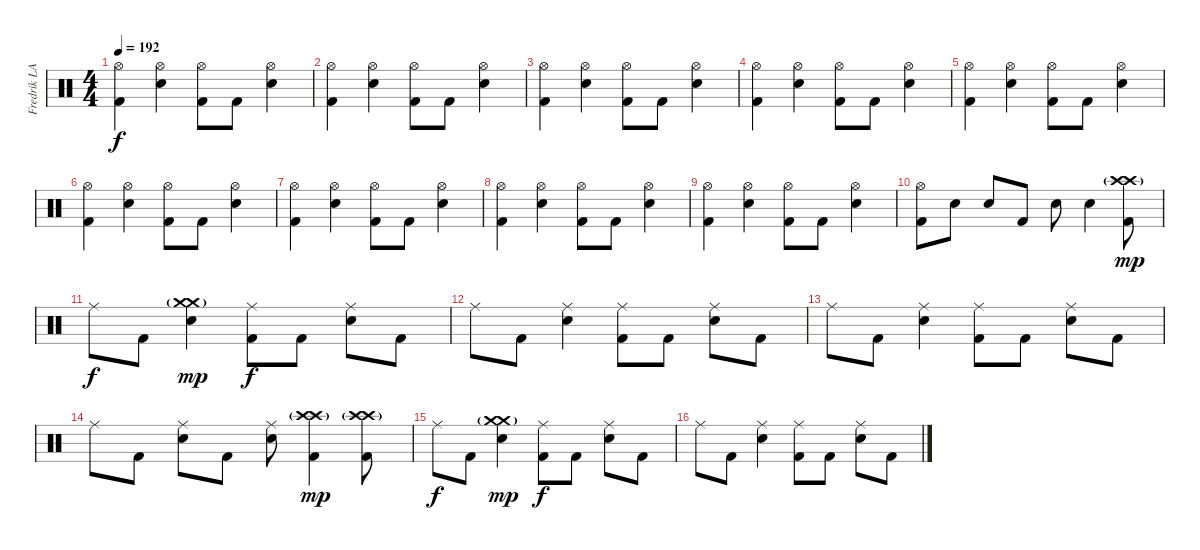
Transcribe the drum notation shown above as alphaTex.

\track ("Fredrik LARZON" "Fredrik LA") {instrument percussion}
\staff {score}
\articulation defaults
\ts (4 4)
\tempo 192
\clef neutral
\ks c
("Hi-Hat (open)" "Kick (hit) 2").4{dy f} ("Hi-Hat (open)" "Electric Snare (hit)").4 ("Hi-Hat (open)" "Kick (hit) 2").8 "Kick (hit) 2".8 ("Hi-Hat (open)" "Electric Snare (hit)").4 |
("Hi-Hat (open)" "Kick (hit) 2").4 ("Hi-Hat (open)" "Electric Snare (hit)").4 ("Hi-Hat (open)" "Kick (hit) 2").8 "Kick (hit) 2".8 ("Hi-Hat (open)" "Electric Snare (hit)").4 |
("Hi-Hat (open)" "Kick (hit) 2").4 ("Hi-Hat (open)" "Electric Snare (hit)").4 ("Hi-Hat (open)" "Kick (hit) 2").8 "Kick (hit) 2".8 ("Hi-Hat (open)" "Electric Snare (hit)").4 |
("Hi-Hat (open)" "Kick (hit) 2").4 ("Hi-Hat (open)" "Electric Snare (hit)").4 ("Hi-Hat (open)" "Kick (hit) 2").8 "Kick (hit) 2".8 ("Hi-Hat (open)" "Electric Snare (hit)").4 |
("Hi-Hat (open)" "Kick (hit) 2").4 ("Hi-Hat (open)" "Electric Snare (hit)").4 ("Hi-Hat (open)" "Kick (hit) 2").8 "Kick (hit) 2".8 ("Hi-Hat (open)" "Electric Snare (hit)").4 |
("Hi-Hat (open)" "Kick (hit) 2").4 ("Hi-Hat (open)" "Electric Snare (hit)").4 ("Hi-Hat (open)" "Kick (hit) 2").8 "Kick (hit) 2".8 ("Hi-Hat (open)" "Electric Snare (hit)").4 |
("Hi-Hat (open)" "Kick (hit) 2").4 ("Hi-Hat (open)" "Electric Snare (hit)").4 ("Hi-Hat (open)" "Kick (hit) 2").8 "Kick (hit) 2".8 ("Hi-Hat (open)" "Electric Snare (hit)").4 |
("Hi-Hat (open)" "Kick (hit) 2").4 ("Hi-Hat (open)" "Electric Snare (hit)").4 ("Hi-Hat (open)" "Kick (hit) 2").8 "Kick (hit) 2".8 ("Hi-Hat (open)" "Electric Snare (hit)").4 |
("Hi-Hat (open)" "Kick (hit) 2").4 ("Hi-Hat (open)" "Electric Snare (hit)").4 ("Hi-Hat (open)" "Kick (hit) 2").8 "Kick (hit) 2".8 ("Hi-Hat (open)" "Electric Snare (hit)").4 |
("Hi-Hat (open)" "Kick (hit) 2").8 "Electric Snare (hit)".8 "Electric Snare (hit)".8 "Kick (hit) 2".8 "Electric Snare (hit)".8 "Electric Snare (hit)".4 ("Crash high (hit)" "Crash high (hit)"{g} "Kick (hit) 2").8{dy mp} |
"Ride (middle)".8{dy f} "Kick (hit) 2".8 ("Crash medium (hit)" "Electric Snare (hit)" "Crash medium (hit)"{g}).4{dy mp} ("Ride (middle)" "Kick (hit) 2").8{dy f} "Kick (hit) 2".8 ("Ride (middle)" "Electric Snare (hit)").8 "Kick (hit) 2".8 |
"Ride (middle)".8 "Kick (hit) 2".8 ("Ride (middle)" "Electric Snare (hit)").4 ("Ride (middle)" "Kick (hit) 2").8 "Kick (hit) 2".8 ("Ride (middle)" "Electric Snare (hit)").8 "Kick (hit) 2".8 |
"Ride (middle)".8 "Kick (hit) 2".8 ("Ride (middle)" "Electric Snare (hit)").4 ("Ride (middle)" "Kick (hit) 2").8 "Kick (hit) 2".8 ("Ride (middle)" "Electric Snare (hit)").8 "Kick (hit) 2".8 |
"Ride (middle)".8 "Kick (hit) 2".8 ("Ride (middle)" "Electric Snare (hit)").8 "Kick (hit) 2".8 ("Ride (middle)" "Electric Snare (hit)").8 ("Crash high (hit)" "Crash high (hit)"{g} "Kick (hit) 2").4{dy mp} ("Crash high (hit)" "Crash high (hit)"{g} "Kick (hit) 2").8 |
"Ride (middle)".8{dy f} "Kick (hit) 2".8 ("Crash medium (hit)" "Electric Snare (hit)" "Crash medium (hit)"{g}).4{dy mp} ("Ride (middle)" "Kick (hit) 2").8{dy f} "Kick (hit) 2".8 ("Ride (middle)" "Electric Snare (hit)").8 "Kick (hit) 2".8 |
"Ride (middle)".8 "Kick (hit) 2".8 ("Ride (middle)" "Electric Snare (hit)").4 ("Ride (middle)" "Kick (hit) 2").8 "Kick (hit) 2".8 ("Ride (middle)" "Electric Snare (hit)").8 "Kick (hit) 2".8
